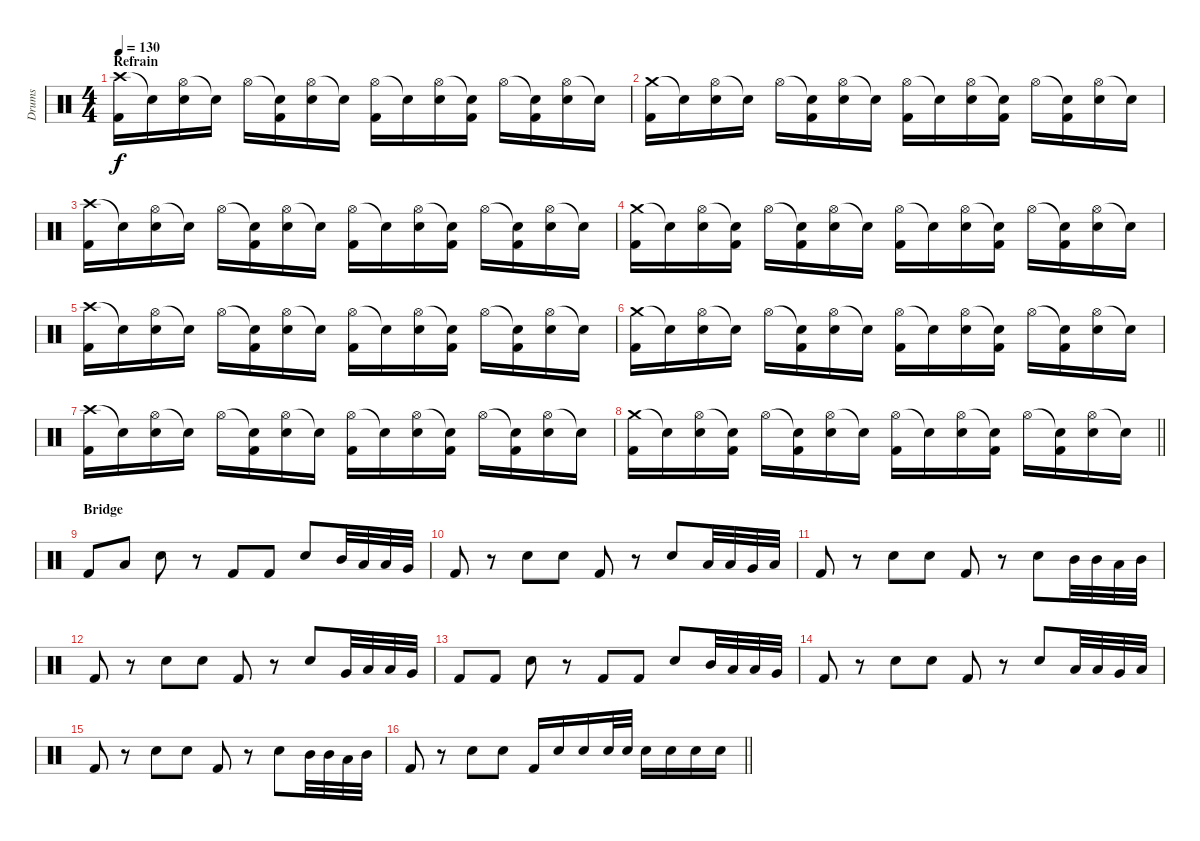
\track ("Drums" "Drums") {instrument percussion}
\staff {score}
\articulation defaults
\ts (4 4)
\section ("" "Refrain")
\tempo 130
\clef neutral
\ks c
("Crash high (hit)" "Kick (hit) 2").16{dy f} "Snare (hit)"{t}.16 ("Hi-Hat (open)" "Snare (hit) 2").16 "Snare (hit)"{t}.16 "Hi-Hat (open)".16 ("Snare (hit)"{t} "Kick (hit) 2").16 ("Hi-Hat (open)" "Snare (hit) 2").16 "Snare (hit)"{t}.16 ("Hi-Hat (open)" "Kick (hit) 2").16 "Snare (hit)"{t}.16 ("Hi-Hat (open)" "Snare (hit) 2").16 ("Snare (hit)"{t} "Kick (hit) 2").16 "Hi-Hat (open)".16 ("Snare (hit)"{t} "Kick (hit) 2").16 ("Hi-Hat (open)" "Snare (hit) 2").16 "Snare (hit)"{t}.16 |
("Crash medium (hit)" "Kick (hit) 2").16 "Snare (hit)"{t}.16 ("Hi-Hat (open)" "Snare (hit) 2").16 "Snare (hit)"{t}.16 "Hi-Hat (open)".16 ("Snare (hit)"{t} "Kick (hit) 2").16 ("Hi-Hat (open)" "Snare (hit) 2").16 "Snare (hit)"{t}.16 ("Hi-Hat (open)" "Kick (hit) 2").16 "Snare (hit)"{t}.16 ("Hi-Hat (open)" "Snare (hit) 2").16 ("Snare (hit)"{t} "Kick (hit) 2").16 "Hi-Hat (open)".16 ("Snare (hit)"{t} "Kick (hit) 2").16 ("Hi-Hat (open)" "Snare (hit) 2").16 "Snare (hit)"{t}.16 |
("Crash high (hit)" "Kick (hit) 2").16 "Snare (hit)"{t}.16 ("Hi-Hat (open)" "Snare (hit) 2").16 "Snare (hit)"{t}.16 "Hi-Hat (open)".16 ("Snare (hit)"{t} "Kick (hit) 2").16 ("Hi-Hat (open)" "Snare (hit) 2").16 "Snare (hit)"{t}.16 ("Hi-Hat (open)" "Kick (hit) 2").16 "Snare (hit)"{t}.16 ("Hi-Hat (open)" "Snare (hit) 2").16 ("Snare (hit)"{t} "Kick (hit) 2").16 "Hi-Hat (open)".16 ("Snare (hit)"{t} "Kick (hit) 2").16 ("Hi-Hat (open)" "Snare (hit) 2").16 "Snare (hit)"{t}.16 |
("Crash medium (hit)" "Kick (hit) 2").16 "Snare (hit)"{t}.16 ("Hi-Hat (open)" "Snare (hit) 2").16 ("Snare (hit)"{t} "Kick (hit) 2").16 "Hi-Hat (open)".16 ("Snare (hit)"{t} "Kick (hit) 2").16 ("Hi-Hat (open)" "Snare (hit) 2").16 "Snare (hit)"{t}.16 ("Hi-Hat (open)" "Kick (hit) 2").16 "Snare (hit)"{t}.16 ("Hi-Hat (open)" "Snare (hit) 2").16 ("Snare (hit)"{t} "Kick (hit) 2").16 "Hi-Hat (open)".16 ("Snare (hit)"{t} "Kick (hit) 2").16 ("Hi-Hat (open)" "Snare (hit) 2").16 "Snare (hit)"{t}.16 |
("Crash high (hit)" "Kick (hit) 2").16 "Snare (hit)"{t}.16 ("Hi-Hat (open)" "Snare (hit) 2").16 "Snare (hit)"{t}.16 "Hi-Hat (open)".16 ("Snare (hit)"{t} "Kick (hit) 2").16 ("Hi-Hat (open)" "Snare (hit) 2").16 "Snare (hit)"{t}.16 ("Hi-Hat (open)" "Kick (hit) 2").16 "Snare (hit)"{t}.16 ("Hi-Hat (open)" "Snare (hit) 2").16 ("Snare (hit)"{t} "Kick (hit) 2").16 "Hi-Hat (open)".16 ("Snare (hit)"{t} "Kick (hit) 2").16 ("Hi-Hat (open)" "Snare (hit) 2").16 "Snare (hit)"{t}.16 |
("Crash medium (hit)" "Kick (hit) 2").16 "Snare (hit)"{t}.16 ("Hi-Hat (open)" "Snare (hit) 2").16 "Snare (hit)"{t}.16 "Hi-Hat (open)".16 ("Snare (hit)"{t} "Kick (hit) 2").16 ("Hi-Hat (open)" "Snare (hit) 2").16 "Snare (hit)"{t}.16 ("Hi-Hat (open)" "Kick (hit) 2").16 "Snare (hit)"{t}.16 ("Hi-Hat (open)" "Snare (hit) 2").16 ("Snare (hit)"{t} "Kick (hit) 2").16 "Hi-Hat (open)".16 ("Snare (hit)"{t} "Kick (hit) 2").16 ("Hi-Hat (open)" "Snare (hit) 2").16 "Snare (hit)"{t}.16 |
("Crash high (hit)" "Kick (hit) 2").16 "Snare (hit)"{t}.16 ("Hi-Hat (open)" "Snare (hit) 2").16 "Snare (hit)"{t}.16 "Hi-Hat (open)".16 ("Snare (hit)"{t} "Kick (hit) 2").16 ("Hi-Hat (open)" "Snare (hit) 2").16 "Snare (hit)"{t}.16 ("Hi-Hat (open)" "Kick (hit) 2").16 "Snare (hit)"{t}.16 ("Hi-Hat (open)" "Snare (hit) 2").16 ("Snare (hit)"{t} "Kick (hit) 2").16 "Hi-Hat (open)".16 ("Snare (hit)"{t} "Kick (hit) 2").16 ("Hi-Hat (open)" "Snare (hit) 2").16 "Snare (hit)"{t}.16 |
\barLineRight lightlight
("Crash medium (hit)" "Kick (hit) 2").16 "Snare (hit)"{t}.16 ("Hi-Hat (open)" "Snare (hit) 2").16 ("Snare (hit)"{t} "Kick (hit) 2").16 "Hi-Hat (open)".16 ("Snare (hit)"{t} "Kick (hit) 2").16 ("Hi-Hat (open)" "Snare (hit) 2").16 "Snare (hit)"{t}.16 ("Hi-Hat (open)" "Kick (hit) 2").16 "Snare (hit)"{t}.16 ("Hi-Hat (open)" "Snare (hit) 2").16 ("Snare (hit)"{t} "Kick (hit) 2").16 "Hi-Hat (open)".16 ("Snare (hit)"{t} "Kick (hit) 2").16 ("Hi-Hat (open)" "Snare (hit) 2").16 "Snare (hit)"{t}.16 |
\section ("" "Bridge")
"Kick (hit) 2".8 "Low Floor Tom (hit)".8 "Snare (hit) 2".8 r.8 "Kick (hit) 2".8 "Kick (hit) 2".8 "Snare (hit) 2".8 "Mid Tom (hit)".32 "Low Tom (hit)".32 "Low Tom (hit)".32 "Very Low Tom (hit)".32 |
"Kick (hit) 2".8 r.8 "Snare (hit) 2".8 "Snare (hit) 2".8 "Kick (hit) 2".8 r.8 "Snare (hit) 2".8 "Low Tom (hit)".32 "Low Tom (hit)".32 "Very Low Tom (hit)".32 "Low Tom (hit)".32 |
"Kick (hit) 2".8 r.8 "Snare (hit) 2".8 "Snare (hit) 2".8 "Kick (hit) 2".8 r.8 "Snare (hit) 2".8 "Mid Tom (hit)".32 "Mid Tom (hit)".32 "Low Tom (hit)".32 "Mid Tom (hit)".32 |
"Kick (hit) 2".8 r.8 "Snare (hit) 2".8 "Snare (hit) 2".8 "Kick (hit) 2".8 r.8 "Snare (hit) 2".8 "Very Low Tom (hit)".32 "Low Floor Tom (hit)".32 "Low Floor Tom (hit)".32 "Very Low Tom (hit)".32 |
"Kick (hit) 2".8 "Kick (hit) 2".8 "Snare (hit) 2".8 r.8 "Kick (hit) 2".8 "Kick (hit) 2".8 "Snare (hit) 2".8 "Mid Tom (hit)".32 "Low Tom (hit)".32 "Low Tom (hit)".32 "Very Low Tom (hit)".32 |
"Kick (hit) 2".8 r.8 "Snare (hit) 2".8 "Snare (hit) 2".8 "Kick (hit) 2".8 r.8 "Snare (hit) 2".8 "Low Tom (hit)".32 "Low Tom (hit)".32 "Very Low Tom (hit)".32 "Low Tom (hit)".32 |
"Kick (hit) 2".8 r.8 "Snare (hit) 2".8 "Snare (hit) 2".8 "Kick (hit) 2".8 r.8 "Snare (hit) 2".8 "Mid Tom (hit)".32 "Mid Tom (hit)".32 "Low Tom (hit)".32 "Mid Tom (hit)".32 |
\barLineRight lightlight "Kick (hit) 2".8
r.8 "Snare (hit) 2".8 "Snare (hit) 2".8 "Kick (hit) 2".16 "Snare (hit) 2".16 "Snare (hit) 2".16 "Snare (hit) 2".32 "Snare (hit) 2".32 "Snare (hit) 2".16 "Snare (hit) 2".16 "Snare (hit) 2".16 "Snare (hit) 2".16
